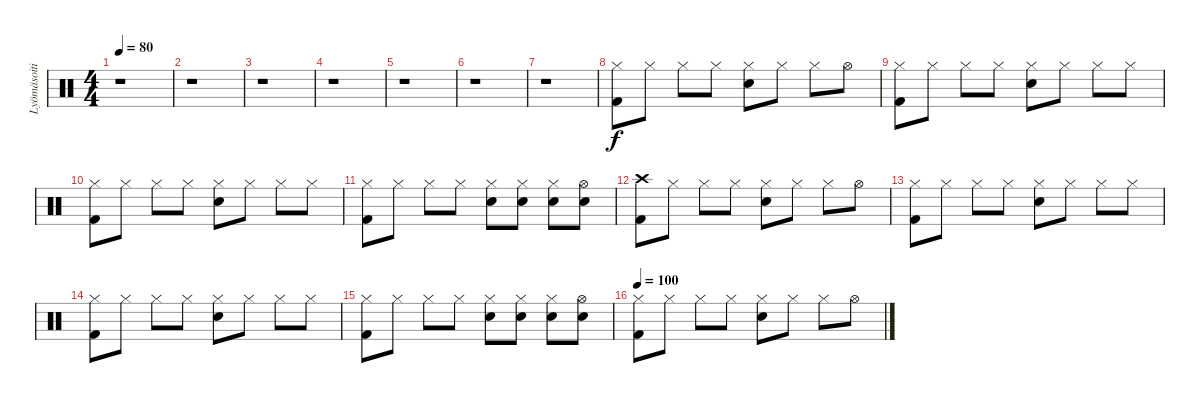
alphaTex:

\track ("Lyömäsoitin" "Lyömäsoiti") {instrument percussion}
\staff {score}
\articulation defaults
\ts (4 4)
\tempo 80
\clef neutral
\ks c
r.1{dy f} |
r.1 |
r.1 |
r.1 |
r.1 |
r.1 |
r.1 |
("Hi-Hat (closed)" "Kick (hit) 2").8 "Hi-Hat (closed)".8 "Hi-Hat (closed)".8 "Hi-Hat (closed)".8 ("Hi-Hat (closed)" "Snare (hit) 2").8 "Hi-Hat (closed)".8 "Hi-Hat (closed)".8 "Hi-Hat (open)".8 |
("Hi-Hat (closed)" "Kick (hit) 2").8 "Hi-Hat (closed)".8 "Hi-Hat (closed)".8 "Hi-Hat (closed)".8 ("Hi-Hat (closed)" "Snare (hit) 2").8 "Hi-Hat (closed)".8 "Hi-Hat (closed)".8 "Hi-Hat (closed)".8 |
("Hi-Hat (closed)" "Kick (hit) 2").8 "Hi-Hat (closed)".8 "Hi-Hat (closed)".8 "Hi-Hat (closed)".8 ("Hi-Hat (closed)" "Snare (hit) 2").8 "Hi-Hat (closed)".8 "Hi-Hat (closed)".8 "Hi-Hat (closed)".8 |
("Hi-Hat (closed)" "Kick (hit) 2").8 "Hi-Hat (closed)".8 "Hi-Hat (closed)".8 "Hi-Hat (closed)".8 ("Hi-Hat (closed)" "Snare (hit) 2").8 ("Hi-Hat (closed)" "Snare (hit) 2").8 ("Hi-Hat (closed)" "Snare (hit) 2").8 ("Hi-Hat (open)" "Snare (hit) 2").8 |
("Crash high (hit)" "Kick (hit) 2").8 "Hi-Hat (closed)".8 "Hi-Hat (closed)".8 "Hi-Hat (closed)".8 ("Hi-Hat (closed)" "Snare (hit) 2").8 "Hi-Hat (closed)".8 "Hi-Hat (closed)".8 "Hi-Hat (open)".8 |
("Hi-Hat (closed)" "Kick (hit) 2").8 "Hi-Hat (closed)".8 "Hi-Hat (closed)".8 "Hi-Hat (closed)".8 ("Hi-Hat (closed)" "Snare (hit) 2").8 "Hi-Hat (closed)".8 "Hi-Hat (closed)".8 "Hi-Hat (closed)".8 |
("Hi-Hat (closed)" "Kick (hit) 2").8 "Hi-Hat (closed)".8 "Hi-Hat (closed)".8 "Hi-Hat (closed)".8 ("Hi-Hat (closed)" "Snare (hit) 2").8 "Hi-Hat (closed)".8 "Hi-Hat (closed)".8 "Hi-Hat (closed)".8 |
("Hi-Hat (closed)" "Kick (hit) 2").8 "Hi-Hat (closed)".8 "Hi-Hat (closed)".8 "Hi-Hat (closed)".8 ("Hi-Hat (closed)" "Snare (hit) 2").8 ("Hi-Hat (closed)" "Snare (hit) 2").8 ("Hi-Hat (closed)" "Snare (hit) 2").8 ("Hi-Hat (open)" "Snare (hit) 2").8 |
\tempo 100
("Hi-Hat (closed)" "Kick (hit) 2").8 "Hi-Hat (closed)".8 "Hi-Hat (closed)".8 "Hi-Hat (closed)".8 ("Hi-Hat (closed)" "Snare (hit) 2").8 "Hi-Hat (closed)".8 "Hi-Hat (closed)".8 "Hi-Hat (open)".8
